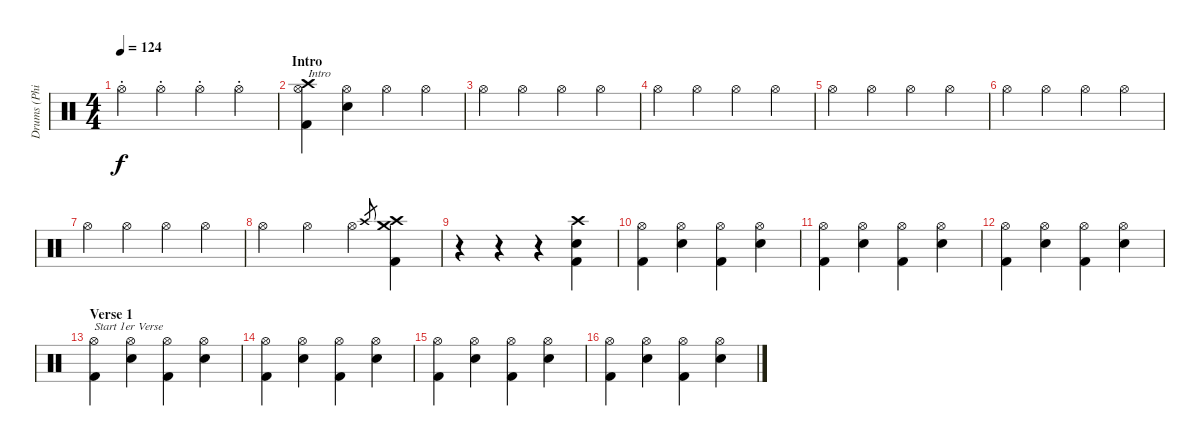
\track ("Drums (Phil R.)" "Drums (Phi") {instrument percussion}
\staff {score}
\articulation defaults
\ts (4 4)
\tempo 124
\clef neutral
\ks c "Hi-Hat (open)"{st}.4{dy f} "Hi-Hat (open)"{st}.4 "Hi-Hat (open)"{st}.4 "Hi-Hat (open)"{st}.4
|
\section ("" "Intro")
("Crash high (hit)" "Hi-Hat (open)" "Kick (hit) 2").4{txt "Intro"} ("Snare (hit) 2" "Hi-Hat (open)").4 "Hi-Hat (open)".4 "Hi-Hat (open)".4 |
"Hi-Hat (open)".4 "Hi-Hat (open)".4 "Hi-Hat (open)".4 "Hi-Hat (open)".4 |
"Hi-Hat (open)".4 "Hi-Hat (open)".4 "Hi-Hat (open)".4 "Hi-Hat (open)".4 |
"Hi-Hat (open)".4 "Hi-Hat (open)".4 "Hi-Hat (open)".4 "Hi-Hat (open)".4 |
"Hi-Hat (open)".4 "Hi-Hat (open)".4 "Hi-Hat (open)".4 "Hi-Hat (open)".4 |
"Hi-Hat (open)".4 "Hi-Hat (open)".4 "Hi-Hat (open)".4 "Hi-Hat (open)".4 |
"Hi-Hat (open)".4 "Hi-Hat (open)".4 "Hi-Hat (open)".4 "Crash high (hit)".8{gr} ("Crash high (hit)" "Kick (hit) 2" "Crash medium (hit)").4 |
r.4 r.4 r.4 ("Crash high (hit)" "Snare (hit) 2" "Kick (hit) 2").4 |
("Hi-Hat (open)" "Kick (hit) 2").4 ("Snare (hit) 2" "Hi-Hat (open)").4 ("Hi-Hat (open)" "Kick (hit) 2").4 ("Snare (hit) 2" "Hi-Hat (open)").4 |
("Hi-Hat (open)" "Kick (hit) 2").4 ("Snare (hit) 2" "Hi-Hat (open)").4 ("Hi-Hat (open)" "Kick (hit) 2").4 ("Snare (hit) 2" "Hi-Hat (open)").4 |
("Hi-Hat (open)" "Kick (hit) 2").4 ("Snare (hit) 2" "Hi-Hat (open)").4 ("Hi-Hat (open)" "Kick (hit) 2").4 ("Snare (hit) 2" "Hi-Hat (open)").4 |
\section ("" "Verse 1")
("Hi-Hat (open)" "Kick (hit) 2").4{txt "Start 1er Verse"} ("Snare (hit) 2" "Hi-Hat (open)").4 ("Hi-Hat (open)" "Kick (hit) 2").4 ("Snare (hit) 2" "Hi-Hat (open)").4 |
("Hi-Hat (open)" "Kick (hit) 2").4 ("Snare (hit) 2" "Hi-Hat (open)").4 ("Hi-Hat (open)" "Kick (hit) 2").4 ("Snare (hit) 2" "Hi-Hat (open)").4 |
("Hi-Hat (open)" "Kick (hit) 2").4 ("Snare (hit) 2" "Hi-Hat (open)").4 ("Hi-Hat (open)" "Kick (hit) 2").4 ("Snare (hit) 2" "Hi-Hat (open)").4 |
("Hi-Hat (open)" "Kick (hit) 2").4 ("Snare (hit) 2" "Hi-Hat (open)").4 ("Hi-Hat (open)" "Kick (hit) 2").4 ("Snare (hit) 2" "Hi-Hat (open)").4
